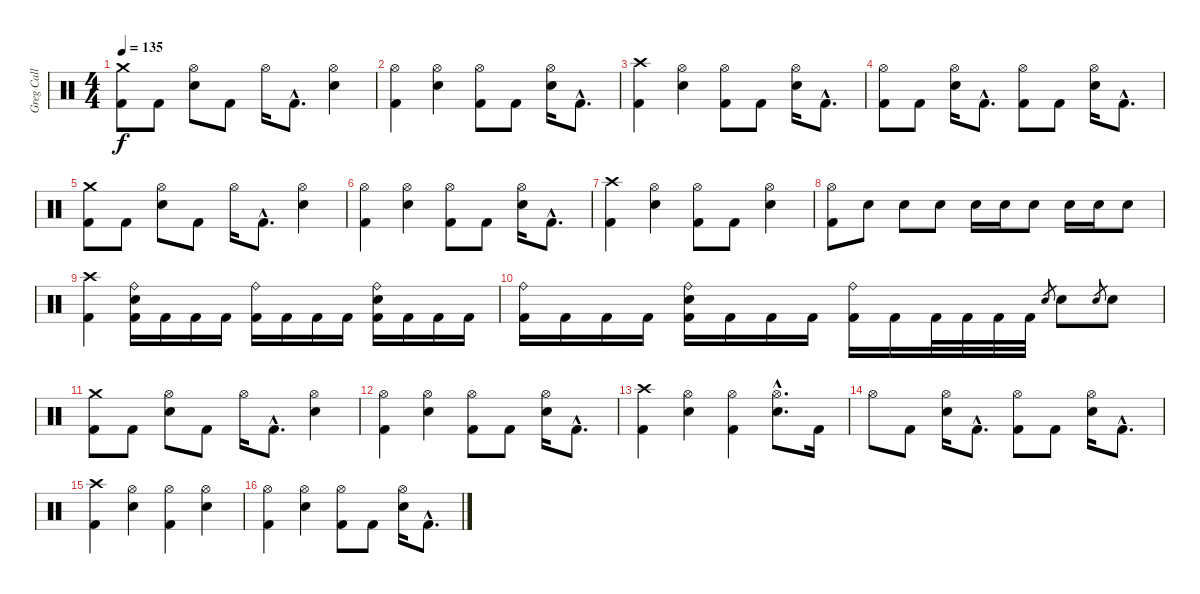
\track ("Greg Call (Drums)" "Greg Call ") {instrument percussion}
\staff {score}
\articulation defaults
\ts (4 4)
\tempo 135
\clef neutral
\ks c
("Crash medium (hit)" "Kick (hit) 2").8{dy f} "Kick (hit) 2".8 ("Hi-Hat (open)" "Snare (hit) 2").8 "Kick (hit) 2".8 "Hi-Hat (open)".16 "Kick (hit) 2"{hac}.8{d} ("Hi-Hat (open)" "Snare (hit) 2").4 |
("Hi-Hat (open)" "Kick (hit) 2").4 ("Hi-Hat (open)" "Snare (hit) 2").4 ("Hi-Hat (open)" "Kick (hit) 2").8 "Kick (hit) 2".8 ("Hi-Hat (open)" "Snare (hit) 2").16 "Kick (hit) 2"{hac}.8{d} |
("Crash high (hit)" "Kick (hit) 2").4 ("Hi-Hat (open)" "Snare (hit) 2").4 ("Hi-Hat (open)" "Kick (hit) 2").8 "Kick (hit) 2".8 ("Hi-Hat (open)" "Snare (hit) 2").16 "Kick (hit) 2"{hac}.8{d} |
("Hi-Hat (open)" "Kick (hit) 2").8 "Kick (hit) 2".8 ("Hi-Hat (open)" "Snare (hit) 2").16 "Kick (hit) 2"{hac}.8{d} ("Hi-Hat (open)" "Kick (hit) 2").8 "Kick (hit) 2".8 ("Hi-Hat (open)" "Snare (hit) 2").16 "Kick (hit) 2"{hac}.8{d} |
("Crash medium (hit)" "Kick (hit) 2").8 "Kick (hit) 2".8 ("Hi-Hat (open)" "Snare (hit) 2").8 "Kick (hit) 2".8 "Hi-Hat (open)".16 "Kick (hit) 2"{hac}.8{d} ("Hi-Hat (open)" "Snare (hit) 2").4 |
("Hi-Hat (open)" "Kick (hit) 2").4 ("Hi-Hat (open)" "Snare (hit) 2").4 ("Hi-Hat (open)" "Kick (hit) 2").8 "Kick (hit) 2".8 ("Hi-Hat (open)" "Snare (hit) 2").16 "Kick (hit) 2"{hac}.8{d} |
("Crash high (hit)" "Kick (hit) 2").4 ("Hi-Hat (open)" "Snare (hit) 2").4 ("Hi-Hat (open)" "Kick (hit) 2").8 "Kick (hit) 2".8 ("Hi-Hat (open)" "Snare (hit) 2").4 |
("Hi-Hat (open)" "Kick (hit) 2").8 "Snare (hit) 2".8 "Snare (hit) 2".8 "Snare (hit) 2".8 "Snare (hit) 2".16 "Snare (hit) 2".16 "Snare (hit) 2".8 "Snare (hit) 2".16 "Snare (hit) 2".16 "Snare (hit) 2".8 |
("Crash high (hit)" "Kick (hit) 2").4 ("Ride (bell)" "Snare (hit) 2" "Kick (hit) 2").16 "Kick (hit) 2".16 "Kick (hit) 2".16 "Kick (hit) 2".16 ("Ride (bell)" "Kick (hit) 2").16 "Kick (hit) 2".16 "Kick (hit) 2".16 "Kick (hit) 2".16 ("Ride (bell)" "Snare (hit) 2" "Kick (hit) 2").16 "Kick (hit) 2".16 "Kick (hit) 2".16 "Kick (hit) 2".16 |
("Ride (bell)" "Kick (hit) 2").16 "Kick (hit) 2".16 "Kick (hit) 2".16 "Kick (hit) 2".16 ("Ride (bell)" "Snare (hit) 2" "Kick (hit) 2").16 "Kick (hit) 2".16 "Kick (hit) 2".16 "Kick (hit) 2".16 ("Ride (bell)" "Kick (hit) 2").16 "Kick (hit) 2".16 "Kick (hit) 2".32 "Kick (hit) 2".32 "Kick (hit) 2".32 "Kick (hit) 2".32 "Snare (hit) 2".8{gr} "Snare (hit) 2".8 "Snare (hit) 2".8{gr} "Snare (hit) 2".8 |
("Crash medium (hit)" "Kick (hit) 2").8 "Kick (hit) 2".8 ("Hi-Hat (open)" "Snare (hit) 2").8 "Kick (hit) 2".8 "Hi-Hat (open)".16 "Kick (hit) 2"{hac}.8{d} ("Hi-Hat (open)" "Snare (hit) 2").4 |
("Hi-Hat (open)" "Kick (hit) 2").4 ("Hi-Hat (open)" "Snare (hit) 2").4 ("Hi-Hat (open)" "Kick (hit) 2").8 "Kick (hit) 2".8 ("Hi-Hat (open)" "Snare (hit) 2").16 "Kick (hit) 2"{hac}.8{d} |
("Crash high (hit)" "Kick (hit) 2").4 ("Hi-Hat (open)" "Snare (hit) 2").4 ("Hi-Hat (open)" "Kick (hit) 2").4 ("Hi-Hat (open)"{hac} "Snare (hit) 2"{hac}).8{d} "Kick (hit) 2".16 |
"Hi-Hat (open)".8 "Kick (hit) 2".8 ("Hi-Hat (open)" "Snare (hit) 2").16 "Kick (hit) 2"{hac}.8{d} ("Hi-Hat (open)" "Kick (hit) 2").8 "Kick (hit) 2".8 ("Hi-Hat (open)" "Snare (hit) 2").16 "Kick (hit) 2"{hac}.8{d} |
("Crash high (hit)" "Kick (hit) 2").4 ("Hi-Hat (open)" "Snare (hit) 2").4 ("Hi-Hat (open)" "Kick (hit) 2").4 ("Hi-Hat (open)" "Snare (hit) 2").4 |
("Hi-Hat (open)" "Kick (hit) 2").4 ("Hi-Hat (open)" "Snare (hit) 2").4 ("Hi-Hat (open)" "Kick (hit) 2").8 "Kick (hit) 2".8 ("Hi-Hat (open)" "Snare (hit) 2").16 "Kick (hit) 2"{hac}.8{d}
